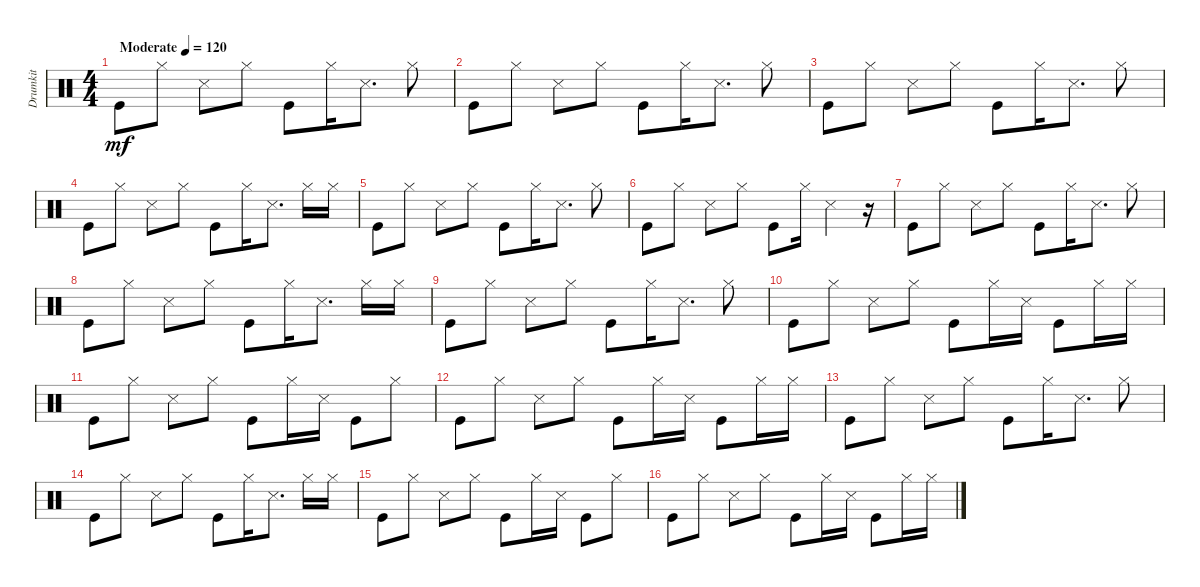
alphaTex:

\track ("Drumkit" "Drumkit") {instrument percussion}
\staff {score}
\articulation defaults
\ts (4 4)
\tempo (120 "Moderate")
\clef neutral
\ks c "Kick (hit)".8{dy mf} "Hi-Hat (closed)".8 "Snare (side stick) 3".8 "Hi-Hat (closed)".8 "Kick (hit)".8 "Hi-Hat (closed)".16 "Snare (side stick) 3".8{d} "Hi-Hat (closed)".8
|
"Kick (hit)".8 "Hi-Hat (closed)".8 "Snare (side stick) 3".8 "Hi-Hat (closed)".8 "Kick (hit)".8 "Hi-Hat (closed)".16 "Snare (side stick) 3".8{d} "Hi-Hat (closed)".8 |
"Kick (hit)".8 "Hi-Hat (closed)".8 "Snare (side stick) 3".8 "Hi-Hat (closed)".8 "Kick (hit)".8 "Hi-Hat (closed)".16 "Snare (side stick) 3".8{d} "Hi-Hat (closed)".8 |
"Kick (hit)".8 "Hi-Hat (closed)".8 "Snare (side stick) 3".8 "Hi-Hat (closed)".8 "Kick (hit)".8 "Hi-Hat (closed)".16 "Snare (side stick) 3".8{d} "Hi-Hat (closed)".16 "Hi-Hat (closed)".16 |
"Kick (hit)".8 "Hi-Hat (closed)".8 "Snare (side stick) 3".8 "Hi-Hat (closed)".8 "Kick (hit)".8 "Hi-Hat (closed)".16 "Snare (side stick) 3".8{d} "Hi-Hat (closed)".8 |
"Kick (hit)".8 "Hi-Hat (closed)".8 "Snare (side stick) 3".8 "Hi-Hat (closed)".8 "Kick (hit)".8 "Hi-Hat (closed)".16 "Snare (side stick) 3".4 r.16 |
"Kick (hit)".8 "Hi-Hat (closed)".8 "Snare (side stick) 3".8 "Hi-Hat (closed)".8 "Kick (hit)".8 "Hi-Hat (closed)".16 "Snare (side stick) 3".8{d} "Hi-Hat (closed)".8 |
"Kick (hit)".8 "Hi-Hat (closed)".8 "Snare (side stick) 3".8 "Hi-Hat (closed)".8 "Kick (hit)".8 "Hi-Hat (closed)".16 "Snare (side stick) 3".8{d} "Hi-Hat (closed)".16 "Hi-Hat (closed)".16 |
"Kick (hit)".8 "Hi-Hat (closed)".8 "Snare (side stick) 3".8 "Hi-Hat (closed)".8 "Kick (hit)".8 "Hi-Hat (closed)".16 "Snare (side stick) 3".8{d} "Hi-Hat (closed)".8 |
"Kick (hit)".8 "Hi-Hat (closed)".8 "Snare (side stick) 3".8 "Hi-Hat (closed)".8 "Kick (hit)".8 "Hi-Hat (closed)".16 "Snare (side stick) 3".16 "Kick (hit)".8 "Hi-Hat (closed)".16 "Hi-Hat (closed)".16 |
"Kick (hit)".8 "Hi-Hat (closed)".8 "Snare (side stick) 3".8 "Hi-Hat (closed)".8 "Kick (hit)".8 "Hi-Hat (closed)".16 "Snare (side stick) 3".16 "Kick (hit)".8 "Hi-Hat (closed)".8 |
"Kick (hit)".8 "Hi-Hat (closed)".8 "Snare (side stick) 3".8 "Hi-Hat (closed)".8 "Kick (hit)".8 "Hi-Hat (closed)".16 "Snare (side stick) 3".16 "Kick (hit)".8 "Hi-Hat (closed)".16 "Hi-Hat (closed)".16 |
"Kick (hit)".8 "Hi-Hat (closed)".8 "Snare (side stick) 3".8 "Hi-Hat (closed)".8 "Kick (hit)".8 "Hi-Hat (closed)".16 "Snare (side stick) 3".8{d} "Hi-Hat (closed)".8 |
"Kick (hit)".8 "Hi-Hat (closed)".8 "Snare (side stick) 3".8 "Hi-Hat (closed)".8 "Kick (hit)".8 "Hi-Hat (closed)".16 "Snare (side stick) 3".8{d} "Hi-Hat (closed)".16 "Hi-Hat (closed)".16 |
"Kick (hit)".8 "Hi-Hat (closed)".8 "Snare (side stick) 3".8 "Hi-Hat (closed)".8 "Kick (hit)".8 "Hi-Hat (closed)".16 "Snare (side stick) 3".16 "Kick (hit)".8 "Hi-Hat (closed)".8 |
"Kick (hit)".8 "Hi-Hat (closed)".8 "Snare (side stick) 3".8 "Hi-Hat (closed)".8 "Kick (hit)".8 "Hi-Hat (closed)".16 "Snare (side stick) 3".16 "Kick (hit)".8 "Hi-Hat (closed)".16 "Hi-Hat (closed)".16
